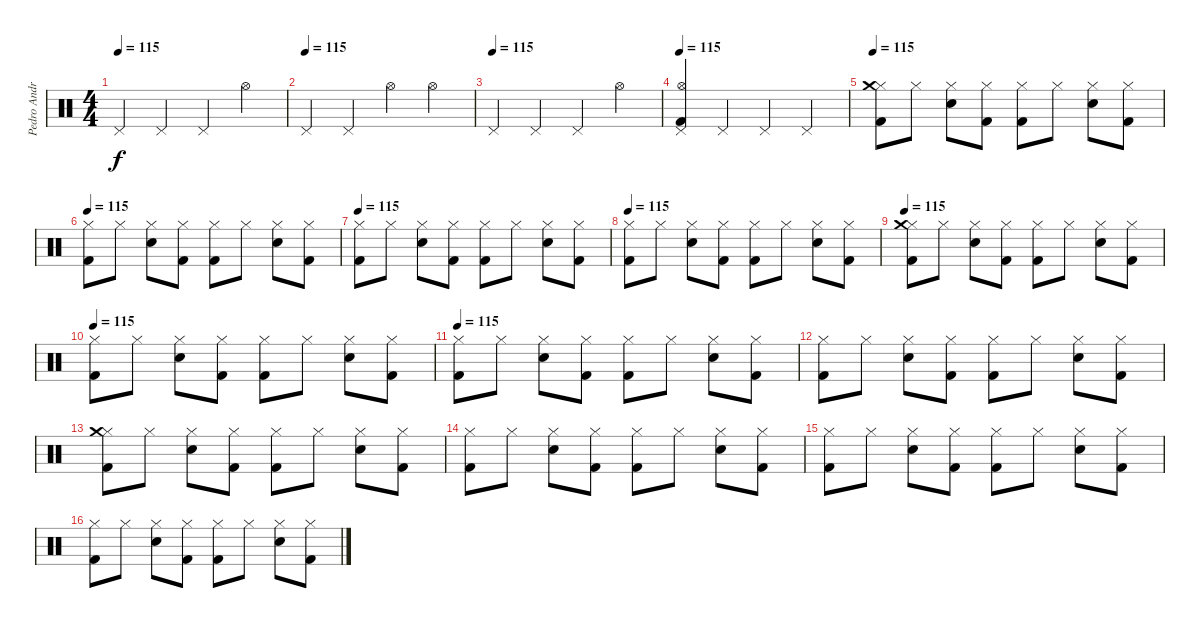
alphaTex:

\track ("Pedro Andreu" "Pedro Andr") {instrument percussion}
\staff {score}
\articulation defaults
\ts (4 4)
\tempo 115
\clef neutral
\ks c "Pedal Hi-Hat (hit)".4{dy f} "Pedal Hi-Hat (hit)".4 "Pedal Hi-Hat (hit)".4 "Hi-Hat (open)".4
|
\tempo (115)
"Pedal Hi-Hat (hit)".4 "Pedal Hi-Hat (hit)".4 "Hi-Hat (open)".4 "Hi-Hat (open)".4 |
\tempo (115)
"Pedal Hi-Hat (hit)".4 "Pedal Hi-Hat (hit)".4 "Pedal Hi-Hat (hit)".4 "Hi-Hat (open)".4 |
\tempo 115
("Hi-Hat (open)" "Kick (hit) 2" "Pedal Hi-Hat (hit)").4 "Pedal Hi-Hat (hit)".4 "Pedal Hi-Hat (hit)".4 "Pedal Hi-Hat (hit)".4 |
\tempo 115
("Hi-Hat (closed)" "Crash medium (hit)" "Kick (hit) 2").8 "Hi-Hat (closed)".8 ("Hi-Hat (closed)" "Snare (hit) 2").8 ("Hi-Hat (closed)" "Kick (hit) 2").8 ("Hi-Hat (closed)" "Kick (hit) 2").8 "Hi-Hat (closed)".8 ("Hi-Hat (closed)" "Snare (hit) 2").8 ("Hi-Hat (closed)" "Kick (hit) 2").8 |
\tempo 115
("Hi-Hat (closed)" "Kick (hit) 2").8 "Hi-Hat (closed)".8 ("Hi-Hat (closed)" "Snare (hit) 2").8 ("Hi-Hat (closed)" "Kick (hit) 2").8 ("Hi-Hat (closed)" "Kick (hit) 2").8 "Hi-Hat (closed)".8 ("Hi-Hat (closed)" "Snare (hit) 2").8 ("Hi-Hat (closed)" "Kick (hit) 2").8 |
\tempo 115
("Hi-Hat (closed)" "Kick (hit) 2").8 "Hi-Hat (closed)".8 ("Hi-Hat (closed)" "Snare (hit) 2").8 ("Hi-Hat (closed)" "Kick (hit) 2").8 ("Hi-Hat (closed)" "Kick (hit) 2").8 "Hi-Hat (closed)".8 ("Hi-Hat (closed)" "Snare (hit) 2").8 ("Hi-Hat (closed)" "Kick (hit) 2").8 |
\tempo 115
("Hi-Hat (closed)" "Kick (hit) 2").8 "Hi-Hat (closed)".8 ("Hi-Hat (closed)" "Snare (hit) 2").8 ("Hi-Hat (closed)" "Kick (hit) 2").8 ("Hi-Hat (closed)" "Kick (hit) 2").8 "Hi-Hat (closed)".8 ("Hi-Hat (closed)" "Snare (hit) 2").8 ("Hi-Hat (closed)" "Kick (hit) 2").8 |
\tempo 115
("Hi-Hat (closed)" "Crash medium (hit)" "Kick (hit) 2").8 "Hi-Hat (closed)".8 ("Hi-Hat (closed)" "Snare (hit) 2").8 ("Hi-Hat (closed)" "Kick (hit) 2").8 ("Hi-Hat (closed)" "Kick (hit) 2").8 "Hi-Hat (closed)".8 ("Hi-Hat (closed)" "Snare (hit) 2").8 ("Hi-Hat (closed)" "Kick (hit) 2").8 |
\tempo 115
("Hi-Hat (closed)" "Kick (hit) 2").8 "Hi-Hat (closed)".8 ("Hi-Hat (closed)" "Snare (hit) 2").8 ("Hi-Hat (closed)" "Kick (hit) 2").8 ("Hi-Hat (closed)" "Kick (hit) 2").8 "Hi-Hat (closed)".8 ("Hi-Hat (closed)" "Snare (hit) 2").8 ("Hi-Hat (closed)" "Kick (hit) 2").8 |
\tempo 115
("Hi-Hat (closed)" "Kick (hit) 2").8 "Hi-Hat (closed)".8 ("Hi-Hat (closed)" "Snare (hit) 2").8 ("Hi-Hat (closed)" "Kick (hit) 2").8 ("Hi-Hat (closed)" "Kick (hit) 2").8 "Hi-Hat (closed)".8 ("Hi-Hat (closed)" "Snare (hit) 2").8 ("Hi-Hat (closed)" "Kick (hit) 2").8 |
("Hi-Hat (closed)" "Kick (hit) 2").8 "Hi-Hat (closed)".8 ("Hi-Hat (closed)" "Snare (hit) 2").8 ("Hi-Hat (closed)" "Kick (hit) 2").8 ("Hi-Hat (closed)" "Kick (hit) 2").8 "Hi-Hat (closed)".8 ("Hi-Hat (closed)" "Snare (hit) 2").8 ("Hi-Hat (closed)" "Kick (hit) 2").8 |
("Hi-Hat (closed)" "Crash medium (hit)" "Kick (hit) 2").8 "Hi-Hat (closed)".8 ("Hi-Hat (closed)" "Snare (hit) 2").8 ("Hi-Hat (closed)" "Kick (hit) 2").8 ("Hi-Hat (closed)" "Kick (hit) 2").8 "Hi-Hat (closed)".8 ("Hi-Hat (closed)" "Snare (hit) 2").8 ("Hi-Hat (closed)" "Kick (hit) 2").8 |
("Hi-Hat (closed)" "Kick (hit) 2").8 "Hi-Hat (closed)".8 ("Hi-Hat (closed)" "Snare (hit) 2").8 ("Hi-Hat (closed)" "Kick (hit) 2").8 ("Hi-Hat (closed)" "Kick (hit) 2").8 "Hi-Hat (closed)".8 ("Hi-Hat (closed)" "Snare (hit) 2").8 ("Hi-Hat (closed)" "Kick (hit) 2").8 |
("Hi-Hat (closed)" "Kick (hit) 2").8 "Hi-Hat (closed)".8 ("Hi-Hat (closed)" "Snare (hit) 2").8 ("Hi-Hat (closed)" "Kick (hit) 2").8 ("Hi-Hat (closed)" "Kick (hit) 2").8 "Hi-Hat (closed)".8 ("Hi-Hat (closed)" "Snare (hit) 2").8 ("Hi-Hat (closed)" "Kick (hit) 2").8 |
("Hi-Hat (closed)" "Kick (hit) 2").8 "Hi-Hat (closed)".8 ("Hi-Hat (closed)" "Snare (hit) 2").8 ("Hi-Hat (closed)" "Kick (hit) 2").8 ("Hi-Hat (closed)" "Kick (hit) 2").8 "Hi-Hat (closed)".8 ("Hi-Hat (closed)" "Snare (hit) 2").8 ("Hi-Hat (closed)" "Kick (hit) 2").8
